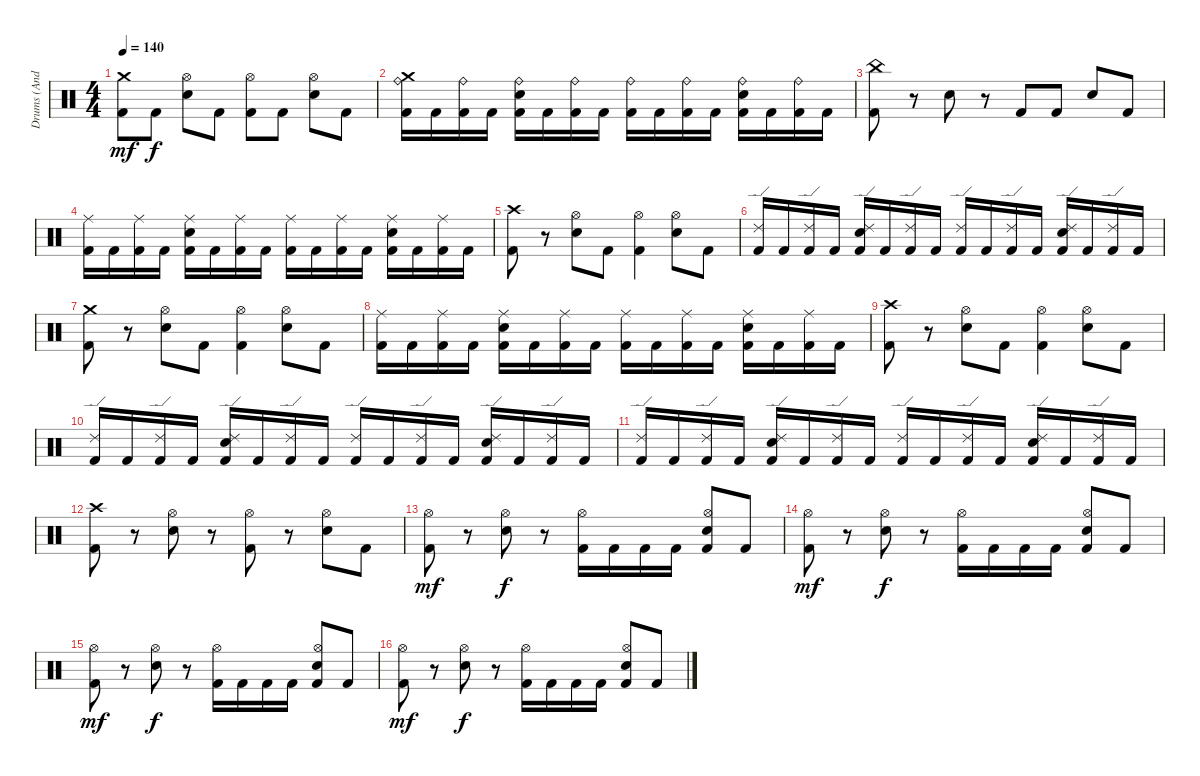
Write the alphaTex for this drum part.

\track ("Drums (Andy C)" "Drums (And") {instrument percussion}
\staff {score}
\articulation defaults
\ts (4 4)
\tempo 140
\clef neutral
\ks c
("Crash medium (hit)" "Kick (hit) 2").8{dy mf} "Kick (hit) 2".8{dy f} ("Hi-Hat (open)" "Electric Snare (hit)").8 "Kick (hit) 2".8 ("Hi-Hat (open)" "Kick (hit) 2").8 "Kick (hit) 2".8 ("Hi-Hat (open)" "Electric Snare (hit)").8 "Kick (hit) 2".8 |
("Crash medium (hit)" "Ride (bell)" "Kick (hit) 2").16 "Kick (hit) 2".16 ("Ride (bell)" "Kick (hit) 2").16 "Kick (hit) 2".16 ("Ride (bell)" "Kick (hit) 2" "Electric Snare (hit)").16 "Kick (hit) 2".16 ("Ride (bell)" "Kick (hit) 2").16 "Kick (hit) 2".16 ("Ride (bell)" "Kick (hit) 2").16 "Kick (hit) 2".16 ("Ride (bell)" "Kick (hit) 2").16 "Kick (hit) 2".16 ("Ride (bell)" "Kick (hit) 2" "Electric Snare (hit)").16 "Kick (hit) 2".16 ("Ride (bell)" "Kick (hit) 2").16 "Kick (hit) 2".16 |
("China (hit)" "Kick (hit) 2").8 r.8 "Electric Snare (hit)".8 r.8 "Kick (hit) 2".8 "Kick (hit) 2".8 "Electric Snare (hit)".8 "Kick (hit) 2".8 |
("Ride (middle)" "Kick (hit) 2").16 "Kick (hit) 2".16 ("Ride (middle)" "Kick (hit) 2").16 "Kick (hit) 2".16 ("Ride (middle)" "Kick (hit) 2" "Electric Snare (hit)").16 "Kick (hit) 2".16 ("Ride (middle)" "Kick (hit) 2").16 "Kick (hit) 2".16 ("Ride (middle)" "Kick (hit) 2").16 "Kick (hit) 2".16 ("Ride (middle)" "Kick (hit) 2").16 "Kick (hit) 2".16 ("Ride (middle)" "Kick (hit) 2" "Electric Snare (hit)").16 "Kick (hit) 2".16 ("Ride (middle)" "Kick (hit) 2").16 "Kick (hit) 2".16 |
("Crash high (hit)" "Kick (hit) 2").8 r.8 ("Hi-Hat (open)" "Electric Snare (hit)").8 "Kick (hit) 2".8 ("Hi-Hat (open)" "Kick (hit) 2").4 ("Hi-Hat (open)" "Electric Snare (hit)").8 "Kick (hit) 2".8 |
("Ride (edge) 2" "Kick (hit) 2").16 "Kick (hit) 2".16 ("Ride (edge) 2" "Kick (hit) 2").16 "Kick (hit) 2".16 ("Ride (edge) 2" "Kick (hit) 2" "Electric Snare (hit)").16 "Kick (hit) 2".16 ("Ride (edge) 2" "Kick (hit) 2").16 "Kick (hit) 2".16 ("Ride (edge) 2" "Kick (hit) 2").16 "Kick (hit) 2".16 ("Ride (edge) 2" "Kick (hit) 2").16 "Kick (hit) 2".16 ("Ride (edge) 2" "Kick (hit) 2" "Electric Snare (hit)").16 "Kick (hit) 2".16 ("Ride (edge) 2" "Kick (hit) 2").16 "Kick (hit) 2".16 |
("Crash medium (hit)" "Kick (hit) 2").8 r.8 ("Hi-Hat (open)" "Electric Snare (hit)").8 "Kick (hit) 2".8 ("Hi-Hat (open)" "Kick (hit) 2").4 ("Hi-Hat (open)" "Electric Snare (hit)").8 "Kick (hit) 2".8 |
("Ride (middle)" "Kick (hit) 2").16 "Kick (hit) 2".16 ("Ride (middle)" "Kick (hit) 2").16 "Kick (hit) 2".16 ("Ride (middle)" "Kick (hit) 2" "Electric Snare (hit)").16 "Kick (hit) 2".16 ("Ride (middle)" "Kick (hit) 2").16 "Kick (hit) 2".16 ("Ride (middle)" "Kick (hit) 2").16 "Kick (hit) 2".16 ("Ride (middle)" "Kick (hit) 2").16 "Kick (hit) 2".16 ("Ride (middle)" "Kick (hit) 2" "Electric Snare (hit)").16 "Kick (hit) 2".16 ("Ride (middle)" "Kick (hit) 2").16 "Kick (hit) 2".16 |
("Crash high (hit)" "Kick (hit) 2").8 r.8 ("Hi-Hat (open)" "Electric Snare (hit)").8 "Kick (hit) 2".8 ("Hi-Hat (open)" "Kick (hit) 2").4 ("Hi-Hat (open)" "Electric Snare (hit)").8 "Kick (hit) 2".8 |
("Ride (edge) 2" "Kick (hit) 2").16 "Kick (hit) 2".16 ("Ride (edge) 2" "Kick (hit) 2").16 "Kick (hit) 2".16 ("Ride (edge) 2" "Kick (hit) 2" "Electric Snare (hit)").16 "Kick (hit) 2".16 ("Ride (edge) 2" "Kick (hit) 2").16 "Kick (hit) 2".16 ("Ride (edge) 2" "Kick (hit) 2").16 "Kick (hit) 2".16 ("Ride (edge) 2" "Kick (hit) 2").16 "Kick (hit) 2".16 ("Ride (edge) 2" "Kick (hit) 2" "Electric Snare (hit)").16 "Kick (hit) 2".16 ("Ride (edge) 2" "Kick (hit) 2").16 "Kick (hit) 2".16 |
("Ride (edge) 2" "Kick (hit) 2").16 "Kick (hit) 2".16 ("Ride (edge) 2" "Kick (hit) 2").16 "Kick (hit) 2".16 ("Ride (edge) 2" "Kick (hit) 2" "Electric Snare (hit)").16 "Kick (hit) 2".16 ("Ride (edge) 2" "Kick (hit) 2").16 "Kick (hit) 2".16 ("Ride (edge) 2" "Kick (hit) 2").16 "Kick (hit) 2".16 ("Ride (edge) 2" "Kick (hit) 2").16 "Kick (hit) 2".16 ("Ride (edge) 2" "Kick (hit) 2" "Electric Snare (hit)").16 "Kick (hit) 2".16 ("Ride (edge) 2" "Kick (hit) 2").16 "Kick (hit) 2".16 |
("Crash high (hit)" "Kick (hit) 2").8 r.8 ("Hi-Hat (open)" "Electric Snare (hit)").8 r.8 ("Hi-Hat (open)" "Kick (hit) 2").8 r.8 ("Hi-Hat (open)" "Electric Snare (hit)").8 "Kick (hit) 2".8 |
("Hi-Hat (open)" "Kick (hit) 2").8{dy mf} r.8 ("Hi-Hat (open)" "Electric Snare (hit)").8{dy f} r.8 ("Hi-Hat (open)" "Kick (hit) 2").16 "Kick (hit) 2".16 "Kick (hit) 2".16 "Kick (hit) 2".16 ("Hi-Hat (open)" "Kick (hit) 2" "Electric Snare (hit)").8 "Kick (hit) 2".8 |
("Hi-Hat (open)" "Kick (hit) 2").8{dy mf} r.8 ("Hi-Hat (open)" "Electric Snare (hit)").8{dy f} r.8 ("Hi-Hat (open)" "Kick (hit) 2").16 "Kick (hit) 2".16 "Kick (hit) 2".16 "Kick (hit) 2".16 ("Hi-Hat (open)" "Kick (hit) 2" "Electric Snare (hit)").8 "Kick (hit) 2".8 |
("Hi-Hat (open)" "Kick (hit) 2").8{dy mf} r.8 ("Hi-Hat (open)" "Electric Snare (hit)").8{dy f} r.8 ("Hi-Hat (open)" "Kick (hit) 2").16 "Kick (hit) 2".16 "Kick (hit) 2".16 "Kick (hit) 2".16 ("Hi-Hat (open)" "Kick (hit) 2" "Electric Snare (hit)").8 "Kick (hit) 2".8 |
("Hi-Hat (open)" "Kick (hit) 2").8{dy mf} r.8 ("Hi-Hat (open)" "Electric Snare (hit)").8{dy f} r.8 ("Hi-Hat (open)" "Kick (hit) 2").16 "Kick (hit) 2".16 "Kick (hit) 2".16 "Kick (hit) 2".16 ("Hi-Hat (open)" "Kick (hit) 2" "Electric Snare (hit)").8 "Kick (hit) 2".8
